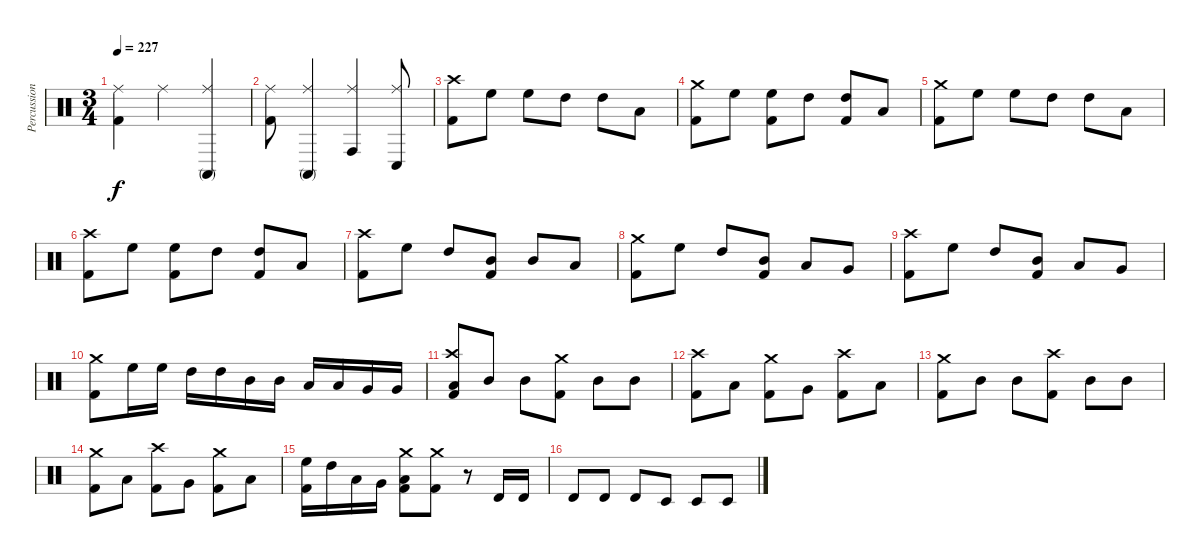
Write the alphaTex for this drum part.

\track ("Percussion" "Percussion") {instrument percussion}
\staff {score}
\articulation defaults
\ts (3 4)
\tempo 227
\clef neutral
\ks c
("Ride (middle)" "Kick (hit) 2").4{dy f} "Ride (middle)".4 ("Ride (middle)" "Conga high (mute)").4 |
("Ride (middle)" "Kick (hit) 2").8 ("Ride (middle)" "Conga high (mute)").4 ("Ride (middle)" "Conga high (hit)").4 ("Ride (middle)" "Conga low (hit)").8 |
("Crash high (hit)" "Kick (hit) 2").8 "High Floor Tom (hit)".8 "High Floor Tom (hit)".8 "High Tom (hit)".8 "High Tom (hit)".8 "Low Tom (hit)".8 |
("Crash medium (hit)" "Kick (hit) 2").8 "High Floor Tom (hit)".8 ("High Floor Tom (hit)" "Kick (hit) 2").8 "High Tom (hit)".8 ("High Tom (hit)" "Kick (hit) 2").8 "Low Tom (hit)".8 |
("Crash medium (hit)" "Kick (hit) 2").8 "High Floor Tom (hit)".8 "High Floor Tom (hit)".8 "High Tom (hit)".8 "High Tom (hit)".8 "Low Tom (hit)".8 |
("Crash high (hit)" "Kick (hit) 2").8 "High Floor Tom (hit)".8 ("High Floor Tom (hit)" "Kick (hit) 2").8 "High Tom (hit)".8 ("High Tom (hit)" "Kick (hit) 2").8 "Low Tom (hit)".8 |
("Crash high (hit)" "Kick (hit) 2").8 "High Floor Tom (hit)".8 "High Tom (hit)".8 ("Mid Tom (hit)" "Kick (hit) 2").8 "Mid Tom (hit)".8 "Low Tom (hit)".8 |
("Crash medium (hit)" "Kick (hit) 2").8 "High Floor Tom (hit)".8 "High Tom (hit)".8 ("Mid Tom (hit)" "Kick (hit) 2").8 "Low Tom (hit)".8 "Very Low Tom (hit)".8 |
("Crash high (hit)" "Kick (hit) 2").8 "High Floor Tom (hit)".8 "High Tom (hit)".8 ("Mid Tom (hit)" "Kick (hit) 2").8 "Low Tom (hit)".8 "Very Low Tom (hit)".8 |
("Crash medium (hit)" "Kick (hit) 2").8 "High Floor Tom (hit)".16 "High Floor Tom (hit)".16 "High Tom (hit)".16 "High Tom (hit)".16 "Mid Tom (hit)".16 "Mid Tom (hit)".16 "Low Tom (hit)".16 "Low Tom (hit)".16 "Very Low Tom (hit)".16 "Very Low Tom (hit)".16 |
("Crash high (hit)" "Low Floor Tom (hit)" "Kick (hit) 2").8 "Mid Tom (hit)".8 "Mid Tom (hit)".8 ("Crash medium (hit)" "Kick (hit) 2").8 "Mid Tom (hit)".8 "Mid Tom (hit)".8 |
("Crash high (hit)" "Kick (hit) 2").8 "Low Tom (hit)".8 ("Crash medium (hit)" "Kick (hit) 2").8 "Very Low Tom (hit)".8 ("Crash high (hit)" "Kick (hit) 2").8 "Low Floor Tom (hit)".8 |
("Crash medium (hit)" "Kick (hit) 2").8 "Mid Tom (hit)".8 "Mid Tom (hit)".8 ("Crash high (hit)" "Kick (hit) 2").8 "Mid Tom (hit)".8 "Mid Tom (hit)".8 |
("Crash medium (hit)" "Kick (hit) 2").8 "Low Tom (hit)".8 ("Crash high (hit)" "Kick (hit) 2").8 "Very Low Tom (hit)".8 ("Crash medium (hit)" "Kick (hit) 2").8 "Low Floor Tom (hit)".8 |
("High Floor Tom (hit)" "Kick (hit) 2").16 "High Tom (hit)".16 "Low Tom (hit)".16 "Very Low Tom (hit)".16 ("Crash medium (hit)" "Low Floor Tom (hit)" "Kick (hit) 2").8 ("Crash medium (hit)" "Kick (hit) 2").8 r.8 "Timbale high (hit)".16 "Timbale high (hit)".16 |
"Timbale high (hit)".8 "Timbale high (hit)".8 "Timbale high (hit)".8 "Timbale low (hit)".8 "Timbale low (hit)".8 "Timbale low (hit)".8
